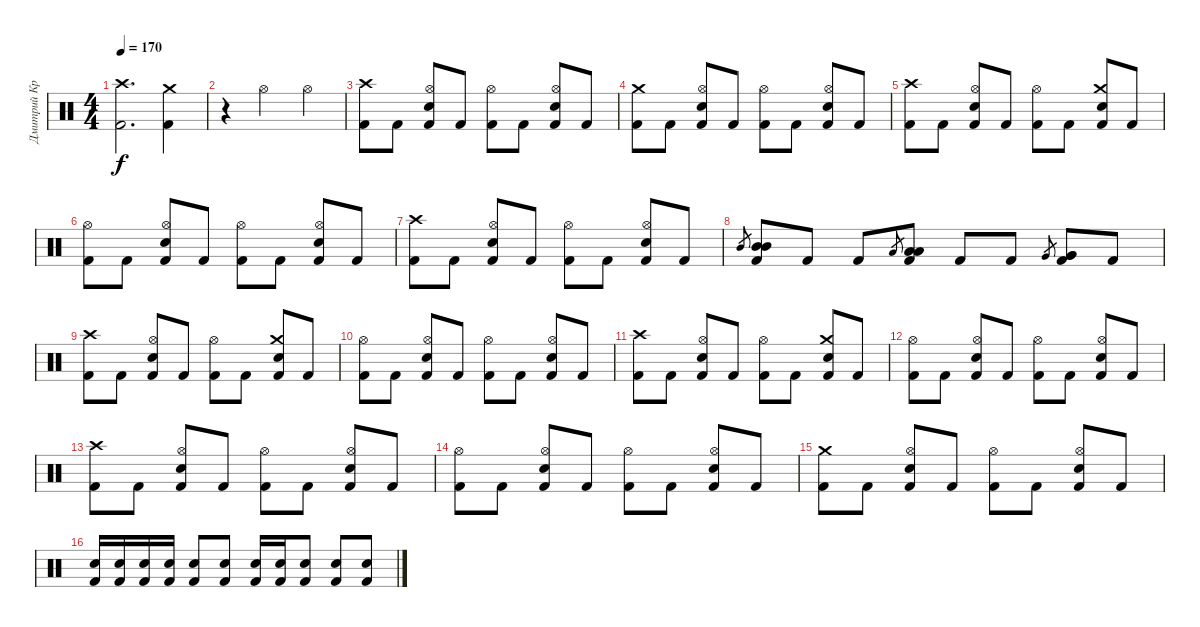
\track ("Дмитрий Кривенков" "Дмитрий Кр") {instrument percussion}
\staff {score}
\articulation defaults
\ts (4 4)
\tempo 170
\clef neutral
\ks c
("Crash high (hit)" "Kick (hit) 2").2{d dy f} ("Crash medium (hit)" "Kick (hit) 2").4 |
r.4 "Hi-Hat (open)".2 "Hi-Hat (open)".4 |
("Crash high (hit)" "Kick (hit) 2").8 "Kick (hit) 2".8 ("Hi-Hat (open)" "Electric Snare (hit)" "Kick (hit) 2").8 "Kick (hit) 2".8 ("Hi-Hat (open)" "Kick (hit) 2").8 "Kick (hit) 2".8 ("Hi-Hat (open)" "Electric Snare (hit)" "Kick (hit) 2").8 "Kick (hit) 2".8 |
("Crash medium (hit)" "Kick (hit) 2").8 "Kick (hit) 2".8 ("Hi-Hat (open)" "Electric Snare (hit)" "Kick (hit) 2").8 "Kick (hit) 2".8 ("Hi-Hat (open)" "Kick (hit) 2").8 "Kick (hit) 2".8 ("Hi-Hat (open)" "Electric Snare (hit)" "Kick (hit) 2").8 "Kick (hit) 2".8 |
("Crash high (hit)" "Kick (hit) 2").8 "Kick (hit) 2".8 ("Hi-Hat (open)" "Electric Snare (hit)" "Kick (hit) 2").8 "Kick (hit) 2".8 ("Hi-Hat (open)" "Kick (hit) 2").8 "Kick (hit) 2".8 ("Crash medium (hit)" "Electric Snare (hit)" "Kick (hit) 2").8 "Kick (hit) 2".8 |
("Hi-Hat (open)" "Kick (hit) 2").8 "Kick (hit) 2".8 ("Hi-Hat (open)" "Electric Snare (hit)" "Kick (hit) 2").8 "Kick (hit) 2".8 ("Hi-Hat (open)" "Kick (hit) 2").8 "Kick (hit) 2".8 ("Hi-Hat (open)" "Electric Snare (hit)" "Kick (hit) 2").8 "Kick (hit) 2".8 |
("Crash high (hit)" "Kick (hit) 2").8 "Kick (hit) 2".8 ("Hi-Hat (open)" "Electric Snare (hit)" "Kick (hit) 2").8 "Kick (hit) 2".8 ("Hi-Hat (open)" "Kick (hit) 2").8 "Kick (hit) 2".8 ("Hi-Hat (open)" "Electric Snare (hit)" "Kick (hit) 2").8 "Kick (hit) 2".8 |
"Mid Tom (hit)".8{gr} ("Mid Tom (hit)" "Mid Tom (hit)" "Kick (hit) 2").8 "Kick (hit) 2".8 "Kick (hit) 2".8 "Low Tom (hit)".8{gr} ("Low Tom (hit)" "Low Tom (hit)" "Kick (hit) 2").8 "Kick (hit) 2".8 "Kick (hit) 2".8 "Very Low Tom (hit)".8{gr} ("Very Low Tom (hit)" "Very Low Tom (hit)" "Kick (hit) 2").8 "Kick (hit) 2".8 |
("Crash high (hit)" "Kick (hit) 2").8 "Kick (hit) 2".8 ("Hi-Hat (open)" "Electric Snare (hit)" "Kick (hit) 2").8 "Kick (hit) 2".8 ("Hi-Hat (open)" "Kick (hit) 2").8 "Kick (hit) 2".8 ("Crash medium (hit)" "Electric Snare (hit)" "Kick (hit) 2").8 "Kick (hit) 2".8 |
("Hi-Hat (open)" "Kick (hit) 2").8 "Kick (hit) 2".8 ("Hi-Hat (open)" "Electric Snare (hit)" "Kick (hit) 2").8 "Kick (hit) 2".8 ("Hi-Hat (open)" "Kick (hit) 2").8 "Kick (hit) 2".8 ("Hi-Hat (open)" "Electric Snare (hit)" "Kick (hit) 2").8 "Kick (hit) 2".8 |
("Crash high (hit)" "Kick (hit) 2").8 "Kick (hit) 2".8 ("Hi-Hat (open)" "Electric Snare (hit)" "Kick (hit) 2").8 "Kick (hit) 2".8 ("Hi-Hat (open)" "Kick (hit) 2").8 "Kick (hit) 2".8 ("Crash medium (hit)" "Electric Snare (hit)" "Kick (hit) 2").8 "Kick (hit) 2".8 |
("Hi-Hat (open)" "Kick (hit) 2").8 "Kick (hit) 2".8 ("Hi-Hat (open)" "Electric Snare (hit)" "Kick (hit) 2").8 "Kick (hit) 2".8 ("Hi-Hat (open)" "Kick (hit) 2").8 "Kick (hit) 2".8 ("Hi-Hat (open)" "Electric Snare (hit)" "Kick (hit) 2").8 "Kick (hit) 2".8 |
("Crash high (hit)" "Kick (hit) 2").8 "Kick (hit) 2".8 ("Hi-Hat (open)" "Electric Snare (hit)" "Kick (hit) 2").8 "Kick (hit) 2".8 ("Hi-Hat (open)" "Kick (hit) 2").8 "Kick (hit) 2".8 ("Hi-Hat (open)" "Electric Snare (hit)" "Kick (hit) 2").8 "Kick (hit) 2".8 |
("Hi-Hat (open)" "Kick (hit) 2").8 "Kick (hit) 2".8 ("Hi-Hat (open)" "Electric Snare (hit)" "Kick (hit) 2").8 "Kick (hit) 2".8 ("Hi-Hat (open)" "Kick (hit) 2").8 "Kick (hit) 2".8 ("Hi-Hat (open)" "Electric Snare (hit)" "Kick (hit) 2").8 "Kick (hit) 2".8 |
("Crash medium (hit)" "Kick (hit) 2").8 "Kick (hit) 2".8 ("Hi-Hat (open)" "Electric Snare (hit)" "Kick (hit) 2").8 "Kick (hit) 2".8 ("Hi-Hat (open)" "Kick (hit) 2").8 "Kick (hit) 2".8 ("Hi-Hat (open)" "Electric Snare (hit)" "Kick (hit) 2").8 "Kick (hit) 2".8 |
("Electric Snare (hit)" "Kick (hit) 2").16 ("Electric Snare (hit)" "Kick (hit) 2").16 ("Electric Snare (hit)" "Kick (hit) 2").16 ("Electric Snare (hit)" "Kick (hit) 2").16 ("Electric Snare (hit)" "Kick (hit) 2").8 ("Electric Snare (hit)" "Kick (hit) 2").8 ("Electric Snare (hit)" "Kick (hit) 2").16 ("Electric Snare (hit)" "Kick (hit) 2").16 ("Electric Snare (hit)" "Kick (hit) 2").8 ("Electric Snare (hit)" "Kick (hit) 2").8 ("Electric Snare (hit)" "Kick (hit) 2").8
